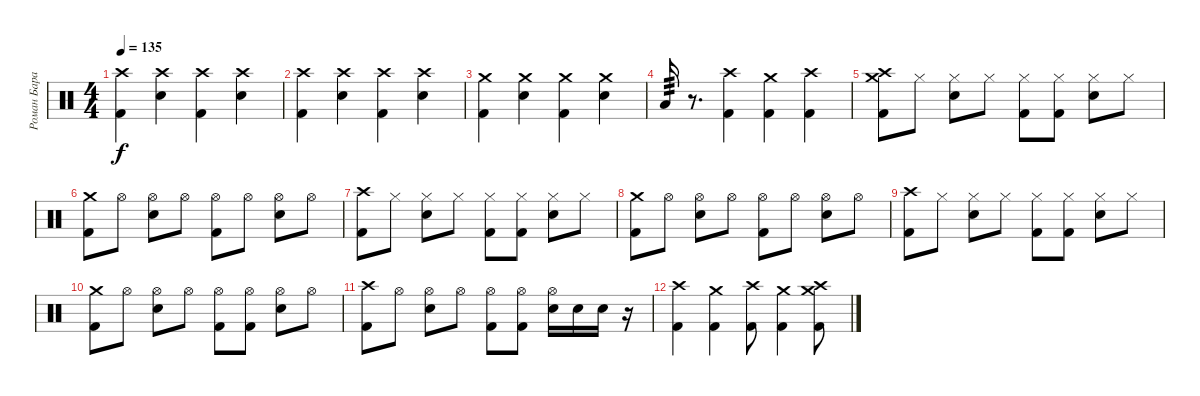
\track ("Роман Баранюк" "Роман Бара") {instrument percussion}
\staff {score}
\articulation defaults
\ts (4 4)
\tempo 135
\clef neutral
\ks c
("Crash high (hit)" "Kick (hit) 2").4{dy f} ("Crash high (hit)" "Snare (hit) 2").4 ("Crash high (hit)" "Kick (hit) 2").4 ("Crash high (hit)" "Snare (hit) 2").4 |
("Crash high (hit)" "Kick (hit) 2").4 ("Crash high (hit)" "Snare (hit) 2").4 ("Crash high (hit)" "Kick (hit) 2").4 ("Crash high (hit)" "Snare (hit) 2").4 |
("Crash medium (hit)" "Kick (hit) 2").4 ("Crash medium (hit)" "Snare (hit) 2").4 ("Crash medium (hit)" "Kick (hit) 2").4 ("Crash medium (hit)" "Snare (hit) 2").4 |
"Low Tom (hit)".16{tp 3} r.8{d} ("Crash high (hit)" "Kick (hit) 2").4 ("Crash medium (hit)" "Kick (hit) 2").4 ("Crash high (hit)" "Kick (hit) 2").4 |
("Crash high (hit)" "Crash medium (hit)" "Kick (hit) 2").8 "Hi-Hat (closed)".8 ("Hi-Hat (closed)" "Snare (hit) 2").8 "Hi-Hat (closed)".8 ("Hi-Hat (closed)" "Kick (hit) 2").8 ("Hi-Hat (closed)" "Kick (hit) 2").8 ("Hi-Hat (closed)" "Snare (hit) 2").8 "Hi-Hat (closed)".8 |
("Crash medium (hit)" "Kick (hit) 2").8 "Hi-Hat (open)".8 ("Hi-Hat (open)" "Snare (hit) 2").8 "Hi-Hat (open)".8 ("Hi-Hat (open)" "Kick (hit) 2").8 "Hi-Hat (open)".8 ("Hi-Hat (open)" "Snare (hit) 2").8 "Hi-Hat (open)".8 |
("Crash high (hit)" "Kick (hit) 2").8 "Hi-Hat (closed)".8 ("Hi-Hat (closed)" "Snare (hit) 2").8 "Hi-Hat (closed)".8 ("Hi-Hat (closed)" "Kick (hit) 2").8 ("Hi-Hat (closed)" "Kick (hit) 2").8 ("Hi-Hat (closed)" "Snare (hit) 2").8 "Hi-Hat (closed)".8 |
("Crash medium (hit)" "Kick (hit) 2").8 "Hi-Hat (open)".8 ("Hi-Hat (open)" "Snare (hit) 2").8 "Hi-Hat (open)".8 ("Hi-Hat (open)" "Kick (hit) 2").8 "Hi-Hat (open)".8 ("Hi-Hat (open)" "Snare (hit) 2").8 "Hi-Hat (open)".8 |
("Crash high (hit)" "Kick (hit) 2").8 "Hi-Hat (closed)".8 ("Hi-Hat (closed)" "Snare (hit) 2").8 "Hi-Hat (closed)".8 ("Hi-Hat (closed)" "Kick (hit) 2").8 ("Hi-Hat (closed)" "Kick (hit) 2").8 ("Hi-Hat (closed)" "Snare (hit) 2").8 "Hi-Hat (closed)".8 |
("Crash medium (hit)" "Kick (hit) 2").8 "Hi-Hat (open)".8 ("Hi-Hat (open)" "Snare (hit) 2").8 "Hi-Hat (open)".8 ("Hi-Hat (open)" "Kick (hit) 2").8 ("Hi-Hat (open)" "Kick (hit) 2").8 ("Hi-Hat (open)" "Snare (hit) 2").8 "Hi-Hat (open)".8 |
("Crash high (hit)" "Kick (hit) 2").8 "Hi-Hat (open)".8 ("Hi-Hat (open)" "Snare (hit) 2").8 "Hi-Hat (open)".8 ("Hi-Hat (open)" "Kick (hit) 2").8 ("Hi-Hat (open)" "Kick (hit) 2").8 ("Hi-Hat (open)" "Snare (hit) 2").16 "Snare (hit) 2".16 "Snare (hit) 2".16 r.16 |
("Crash high (hit)" "Kick (hit) 2").4 ("Crash medium (hit)" "Kick (hit) 2").4 ("Crash high (hit)" "Kick (hit) 2").8 ("Crash medium (hit)" "Kick (hit) 2").4 ("Crash high (hit)" "Crash medium (hit)" "Kick (hit) 2").8
